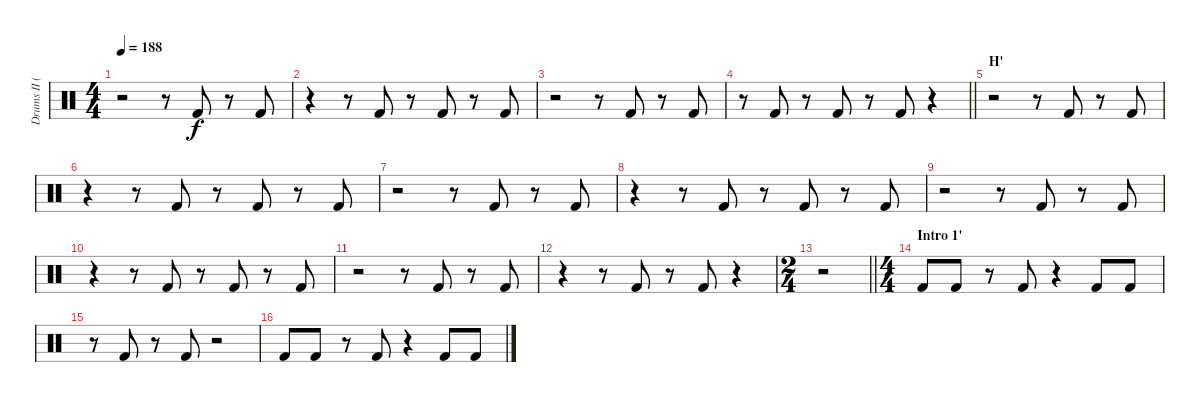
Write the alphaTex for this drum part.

\track ("Drums II (Ruka)" "Drums II (") {instrument percussion}
\staff {score}
\articulation defaults
\ts (4 4)
\tempo 188
\clef neutral
\ks c
r.2{dy f} r.8 "Kick (hit) 2".8 r.8 "Kick (hit) 2".8 |
r.4 r.8 "Kick (hit) 2".8 r.8 "Kick (hit) 2".8 r.8 "Kick (hit) 2".8 |
r.2 r.8 "Kick (hit) 2".8 r.8 "Kick (hit) 2".8 |
\barLineRight lightlight
r.8 "Kick (hit) 2".8 r.8 "Kick (hit) 2".8 r.8 "Kick (hit) 2".8 r.4 |
\section ("" "H'")
r.2 r.8 "Kick (hit) 2".8 r.8 "Kick (hit) 2".8 |
r.4 r.8 "Kick (hit) 2".8 r.8 "Kick (hit) 2".8 r.8 "Kick (hit) 2".8 |
r.2 r.8 "Kick (hit) 2".8 r.8 "Kick (hit) 2".8 |
r.4 r.8 "Kick (hit) 2".8 r.8 "Kick (hit) 2".8 r.8 "Kick (hit) 2".8 |
r.2 r.8 "Kick (hit) 2".8 r.8 "Kick (hit) 2".8 |
r.4 r.8 "Kick (hit) 2".8 r.8 "Kick (hit) 2".8 r.8 "Kick (hit) 2".8 |
r.2 r.8 "Kick (hit) 2".8 r.8 "Kick (hit) 2".8 |
r.4 r.8 "Kick (hit) 2".8 r.8 "Kick (hit) 2".8 r.4 |
\ts (2 4)
\barLineRight lightlight
r.2 |
\ts (4 4)
\section ("" "Intro 1'")
"Kick (hit) 2".8 "Kick (hit) 2".8 r.8 "Kick (hit) 2".8 r.4 "Kick (hit) 2".8 "Kick (hit) 2".8 |
r.8 "Kick (hit) 2".8 r.8 "Kick (hit) 2".8 r.2 |
"Kick (hit) 2".8 "Kick (hit) 2".8 r.8 "Kick (hit) 2".8 r.4 "Kick (hit) 2".8 "Kick (hit) 2".8
